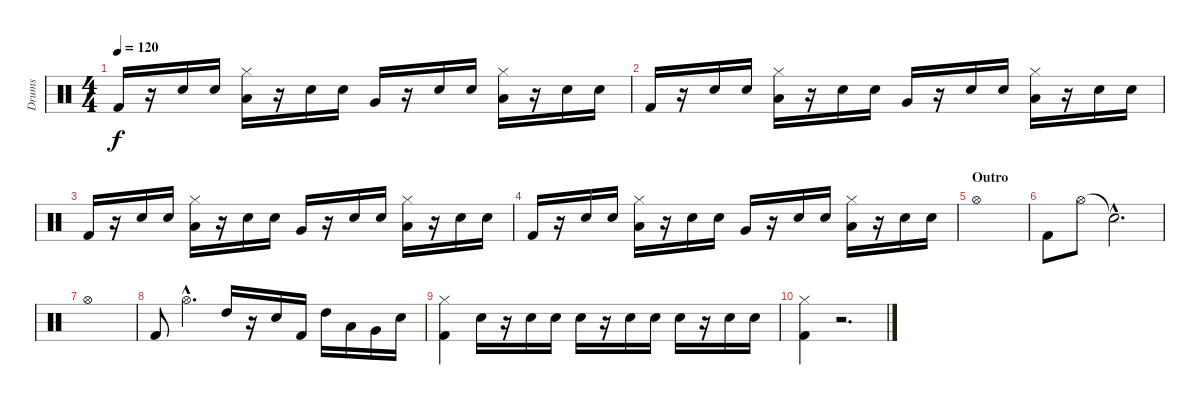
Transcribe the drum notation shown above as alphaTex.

\track ("Drums" "Drums") {instrument percussion}
\staff {score}
\articulation defaults
\ts (4 4)
\tempo 120
\clef neutral
\ks c "Kick (hit) 2".16{dy f}
r.16 "Electric Snare (hit)".16 "Electric Snare (hit)".16 ("Hi-Hat (closed)" "Low Floor Tom (hit)").16 r.16 "Electric Snare (hit)".16 "Electric Snare (hit)".16 "Very Low Tom (hit)".16 r.16 "Electric Snare (hit)".16 "Electric Snare (hit)".16 ("Hi-Hat (closed)" "Low Floor Tom (hit)").16 r.16 "Electric Snare (hit)".16 "Electric Snare (hit)".16 |
"Kick (hit) 2".16 r.16 "Electric Snare (hit)".16 "Electric Snare (hit)".16 ("Hi-Hat (closed)" "Low Floor Tom (hit)").16 r.16 "Electric Snare (hit)".16 "Electric Snare (hit)".16 "Very Low Tom (hit)".16 r.16 "Electric Snare (hit)".16 "Electric Snare (hit)".16 ("Hi-Hat (closed)" "Low Floor Tom (hit)").16 r.16 "Electric Snare (hit)".16 "Electric Snare (hit)".16 |
"Kick (hit) 2".16 r.16 "Electric Snare (hit)".16 "Electric Snare (hit)".16 ("Hi-Hat (closed)" "Low Floor Tom (hit)").16 r.16 "Electric Snare (hit)".16 "Electric Snare (hit)".16 "Very Low Tom (hit)".16 r.16 "Electric Snare (hit)".16 "Electric Snare (hit)".16 ("Hi-Hat (closed)" "Low Floor Tom (hit)").16 r.16 "Electric Snare (hit)".16 "Electric Snare (hit)".16 |
"Kick (hit) 2".16 r.16 "Electric Snare (hit)".16 "Electric Snare (hit)".16 ("Hi-Hat (closed)" "Low Floor Tom (hit)").16 r.16 "Electric Snare (hit)".16 "Electric Snare (hit)".16 "Very Low Tom (hit)".16 r.16 "Electric Snare (hit)".16 "Electric Snare (hit)".16 ("Hi-Hat (closed)" "Low Floor Tom (hit)").16 r.16 "Electric Snare (hit)".16 "Electric Snare (hit)".16 |
\section ("" "Outro")
"Hi-Hat (open)".1 |
"Kick (hit) 2".8 "Hi-Hat (open)".8 "Snare (hit)"{hac t}.2{d} |
"Hi-Hat (open)".1 |
"Kick (hit) 2".8 "Hi-Hat (open)"{hac}.4{d} "High Tom (hit)".16 r.16 "Electric Snare (hit)".16 "Kick (hit) 2".16 "High Tom (hit)".16 "Low Tom (hit)".16 "Very Low Tom (hit)".16 "Electric Snare (hit)".16 |
("Hi-Hat (closed)" "Kick (hit) 2").4 "Electric Snare (hit)".16 r.16 "Electric Snare (hit)".16 "Electric Snare (hit)".16 "Electric Snare (hit)".16 r.16 "Electric Snare (hit)".16 "Electric Snare (hit)".16 "Electric Snare (hit)".16 r.16 "Electric Snare (hit)".16 "Electric Snare (hit)".16 |
("Hi-Hat (closed)" "Kick (hit) 2").4 r.2{d}
